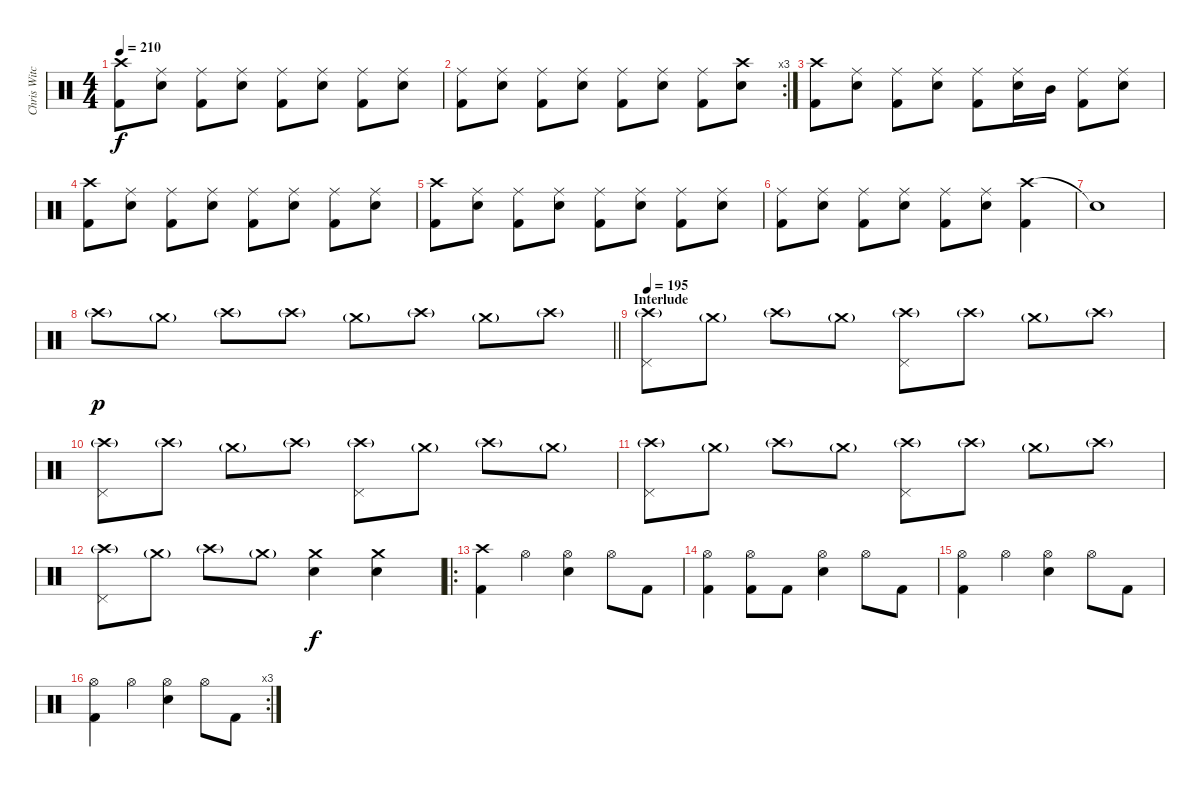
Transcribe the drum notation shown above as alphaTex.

\track ("Chris Witchunter" "Chris Witc") {instrument percussion}
\staff {score}
\articulation defaults
\ts (4 4)
\tempo 210
\clef neutral
\ks c
("Crash high (hit)" "Kick (hit) 2").8{dy f} ("Ride (middle)" "Snare (hit) 2").8 ("Ride (middle)" "Kick (hit) 2").8 ("Ride (middle)" "Snare (hit) 2").8 ("Ride (middle)" "Kick (hit) 2").8 ("Ride (middle)" "Snare (hit) 2").8 ("Ride (middle)" "Kick (hit) 2").8 ("Ride (middle)" "Snare (hit) 2").8 |
\rc 3
("Ride (middle)" "Kick (hit) 2").8 ("Ride (middle)" "Snare (hit) 2").8 ("Ride (middle)" "Kick (hit) 2").8 ("Ride (middle)" "Snare (hit) 2").8 ("Ride (middle)" "Kick (hit) 2").8 ("Ride (middle)" "Snare (hit) 2").8 ("Ride (middle)" "Kick (hit) 2").8 ("Crash high (hit)" "Snare (hit) 2").8 |
("Crash high (hit)" "Kick (hit) 2").8 ("Ride (middle)" "Snare (hit) 2").8 ("Ride (middle)" "Kick (hit) 2").8 ("Ride (middle)" "Snare (hit) 2").8 ("Ride (middle)" "Kick (hit) 2").8 ("Ride (middle)" "Snare (hit) 2").16 "Mid Tom (hit)".16 ("Ride (middle)" "Kick (hit) 2").8 ("Ride (middle)" "Snare (hit) 2").8 |
("Crash high (hit)" "Kick (hit) 2").8 ("Ride (middle)" "Snare (hit) 2").8 ("Ride (middle)" "Kick (hit) 2").8 ("Ride (middle)" "Snare (hit) 2").8 ("Ride (middle)" "Kick (hit) 2").8 ("Ride (middle)" "Snare (hit) 2").8 ("Ride (middle)" "Kick (hit) 2").8 ("Ride (middle)" "Snare (hit) 2").8 |
("Crash high (hit)" "Kick (hit) 2").8 ("Ride (middle)" "Snare (hit) 2").8 ("Ride (middle)" "Kick (hit) 2").8 ("Ride (middle)" "Snare (hit) 2").8 ("Ride (middle)" "Kick (hit) 2").8 ("Ride (middle)" "Snare (hit) 2").8 ("Ride (middle)" "Kick (hit) 2").8 ("Ride (middle)" "Snare (hit) 2").8 |
("Ride (middle)" "Kick (hit) 2").8 ("Ride (middle)" "Snare (hit) 2").8 ("Ride (middle)" "Kick (hit) 2").8 ("Ride (middle)" "Snare (hit) 2").8 ("Ride (middle)" "Kick (hit) 2").8 ("Ride (middle)" "Snare (hit) 2").8 ("Crash high (hit)" "Kick (hit) 2").4 |
"Snare (hit)"{t}.1 |
\barLineRight lightlight "Crash high (hit)"{g}.8{dy p} "Crash medium (hit)"{g}.8 "Crash high (hit)"{g}.8 "Crash high (hit)"{g}.8 "Crash medium (hit)"{g}.8 "Crash high (hit)"{g}.8 "Crash medium (hit)"{g}.8 "Crash high (hit)"{g}.8
|
\section ("" "Interlude")
\tempo 195
("Crash high (hit)"{g} "Pedal Hi-Hat (hit)").8 "Crash medium (hit)"{g}.8 "Crash high (hit)"{g}.8 "Crash medium (hit)"{g}.8 ("Crash high (hit)"{g} "Pedal Hi-Hat (hit)").8 "Crash high (hit)"{g}.8 "Crash medium (hit)"{g}.8 "Crash high (hit)"{g}.8 |
("Crash high (hit)"{g} "Pedal Hi-Hat (hit)").8 "Crash high (hit)"{g}.8 "Crash medium (hit)"{g}.8 "Crash high (hit)"{g}.8 ("Crash high (hit)"{g} "Pedal Hi-Hat (hit)").8 "Crash medium (hit)"{g}.8 "Crash high (hit)"{g}.8 "Crash medium (hit)"{g}.8 |
("Crash high (hit)"{g} "Pedal Hi-Hat (hit)").8 "Crash medium (hit)"{g}.8 "Crash high (hit)"{g}.8 "Crash medium (hit)"{g}.8 ("Crash high (hit)"{g} "Pedal Hi-Hat (hit)").8 "Crash high (hit)"{g}.8 "Crash medium (hit)"{g}.8 "Crash high (hit)"{g}.8 |
("Crash high (hit)"{g} "Pedal Hi-Hat (hit)").8 "Crash medium (hit)"{g}.8 "Crash high (hit)"{g}.8 "Crash medium (hit)"{g}.8 ("Crash medium (hit)" "Snare (hit) 2").4{dy f} ("Crash medium (hit)" "Snare (hit) 2").4 |
\ro
("Crash high (hit)" "Kick (hit) 2").4 "Hi-Hat (open)".4 ("Hi-Hat (open)" "Snare (hit) 2").4 "Hi-Hat (open)".8 "Kick (hit) 2".8 |
("Hi-Hat (open)" "Kick (hit) 2").4 ("Hi-Hat (open)" "Kick (hit) 2").8 "Kick (hit) 2".8 ("Hi-Hat (open)" "Snare (hit) 2").4 "Hi-Hat (open)".8 "Kick (hit) 2".8 |
("Hi-Hat (open)" "Kick (hit) 2").4 "Hi-Hat (open)".4 ("Hi-Hat (open)" "Snare (hit) 2").4 "Hi-Hat (open)".8 "Kick (hit) 2".8 |
\rc 3
("Hi-Hat (open)" "Kick (hit) 2").4 "Hi-Hat (open)".4 ("Hi-Hat (open)" "Snare (hit) 2").4 "Hi-Hat (open)".8 "Kick (hit) 2".8
